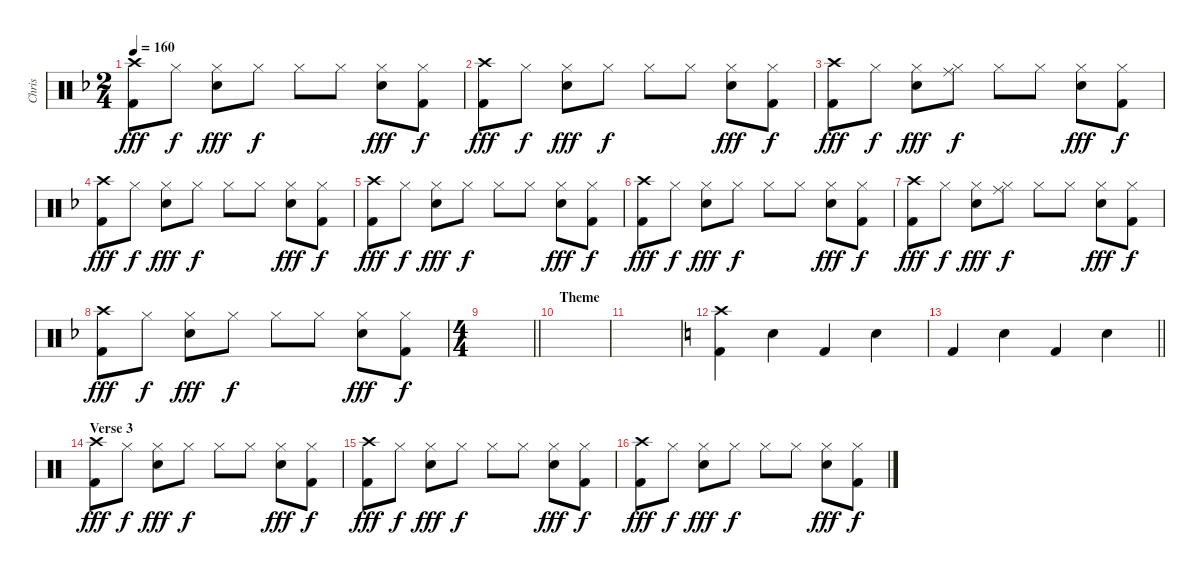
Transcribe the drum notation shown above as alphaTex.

\track ("Chris" "Chris") {instrument percussion}
\staff {score}
\articulation defaults
\ts (2 4)
\tempo 160
\clef neutral
\ks f
("Crash high (hit)" "Kick (hit) 2").8{dy fff} "Hi-Hat (closed)".8{dy f} ("Hi-Hat (closed)" "Snare (hit) 2").8{dy fff} "Hi-Hat (closed)".8{dy f} "Hi-Hat (closed)".8 "Hi-Hat (closed)".8 ("Hi-Hat (closed)" "Snare (hit) 2").8{dy fff} ("Hi-Hat (closed)" "Kick (hit) 2").8{dy f} |
("Crash high (hit)" "Kick (hit) 2").8{dy fff} "Hi-Hat (closed)".8{dy f} ("Hi-Hat (closed)" "Snare (hit) 2").8{dy fff} "Hi-Hat (closed)".8{dy f} "Hi-Hat (closed)".8 "Hi-Hat (closed)".8 ("Hi-Hat (closed)" "Snare (hit) 2").8{dy fff} ("Hi-Hat (closed)" "Kick (hit) 2").8{dy f} |
("Crash high (hit)" "Kick (hit) 2").8{dy fff} "Hi-Hat (closed)".8{dy f} ("Hi-Hat (closed)" "Snare (hit) 2").8{dy fff} ("Hi-Hat (closed)" "Ride (middle)").8{dy f} "Hi-Hat (closed)".8 "Hi-Hat (closed)".8 ("Hi-Hat (closed)" "Snare (hit) 2").8{dy fff} ("Hi-Hat (closed)" "Kick (hit) 2").8{dy f} |
("Crash high (hit)" "Kick (hit) 2").8{dy fff} "Hi-Hat (closed)".8{dy f} ("Hi-Hat (closed)" "Snare (hit) 2").8{dy fff} "Hi-Hat (closed)".8{dy f} "Hi-Hat (closed)".8 "Hi-Hat (closed)".8 ("Hi-Hat (closed)" "Snare (hit) 2").8{dy fff} ("Hi-Hat (closed)" "Kick (hit) 2").8{dy f} |
("Crash high (hit)" "Kick (hit) 2").8{dy fff} "Hi-Hat (closed)".8{dy f} ("Hi-Hat (closed)" "Snare (hit) 2").8{dy fff} "Hi-Hat (closed)".8{dy f} "Hi-Hat (closed)".8 "Hi-Hat (closed)".8 ("Hi-Hat (closed)" "Snare (hit) 2").8{dy fff} ("Hi-Hat (closed)" "Kick (hit) 2").8{dy f} |
("Crash high (hit)" "Kick (hit) 2").8{dy fff} "Hi-Hat (closed)".8{dy f} ("Hi-Hat (closed)" "Snare (hit) 2").8{dy fff} "Hi-Hat (closed)".8{dy f} "Hi-Hat (closed)".8 "Hi-Hat (closed)".8 ("Hi-Hat (closed)" "Snare (hit) 2").8{dy fff} ("Hi-Hat (closed)" "Kick (hit) 2").8{dy f} |
("Crash high (hit)" "Kick (hit) 2").8{dy fff} "Hi-Hat (closed)".8{dy f} ("Hi-Hat (closed)" "Snare (hit) 2").8{dy fff} ("Hi-Hat (closed)" "Ride (middle)").8{dy f} "Hi-Hat (closed)".8 "Hi-Hat (closed)".8 ("Hi-Hat (closed)" "Snare (hit) 2").8{dy fff} ("Hi-Hat (closed)" "Kick (hit) 2").8{dy f} |
("Crash high (hit)" "Kick (hit) 2").8{dy fff} "Hi-Hat (closed)".8{dy f} ("Hi-Hat (closed)" "Snare (hit) 2").8{dy fff} "Hi-Hat (closed)".8{dy f} "Hi-Hat (closed)".8 "Hi-Hat (closed)".8 ("Hi-Hat (closed)" "Snare (hit) 2").8{dy fff} ("Hi-Hat (closed)" "Kick (hit) 2").8{dy f} |
\ts (4 4)
\barLineRight lightlight
|
\section ("" "Theme")
|
|
\ks c
("Crash high (hit)" "Kick (hit) 2").4 "Electric Snare (hit)".4 "Kick (hit) 2".4 "Electric Snare (hit)".4 |
\barLineRight lightlight "Kick (hit) 2".4 "Electric Snare (hit)".4 "Kick (hit) 2".4 "Electric Snare (hit)".4
|
\section ("" "Verse 3")
("Crash high (hit)" "Kick (hit) 2").8{dy fff} "Hi-Hat (closed)".8{dy f} ("Hi-Hat (closed)" "Snare (hit) 2").8{dy fff} "Hi-Hat (closed)".8{dy f} "Hi-Hat (closed)".8 "Hi-Hat (closed)".8 ("Hi-Hat (closed)" "Snare (hit) 2").8{dy fff} ("Hi-Hat (closed)" "Kick (hit) 2").8{dy f} |
("Crash high (hit)" "Kick (hit) 2").8{dy fff} "Hi-Hat (closed)".8{dy f} ("Hi-Hat (closed)" "Snare (hit) 2").8{dy fff} "Hi-Hat (closed)".8{dy f} "Hi-Hat (closed)".8 "Hi-Hat (closed)".8 ("Hi-Hat (closed)" "Snare (hit) 2").8{dy fff} ("Hi-Hat (closed)" "Kick (hit) 2").8{dy f} |
("Crash high (hit)" "Kick (hit) 2").8{dy fff} "Hi-Hat (closed)".8{dy f} ("Hi-Hat (closed)" "Snare (hit) 2").8{dy fff} "Hi-Hat (closed)".8{dy f} "Hi-Hat (closed)".8 "Hi-Hat (closed)".8 ("Hi-Hat (closed)" "Snare (hit) 2").8{dy fff} ("Hi-Hat (closed)" "Kick (hit) 2").8{dy f}
